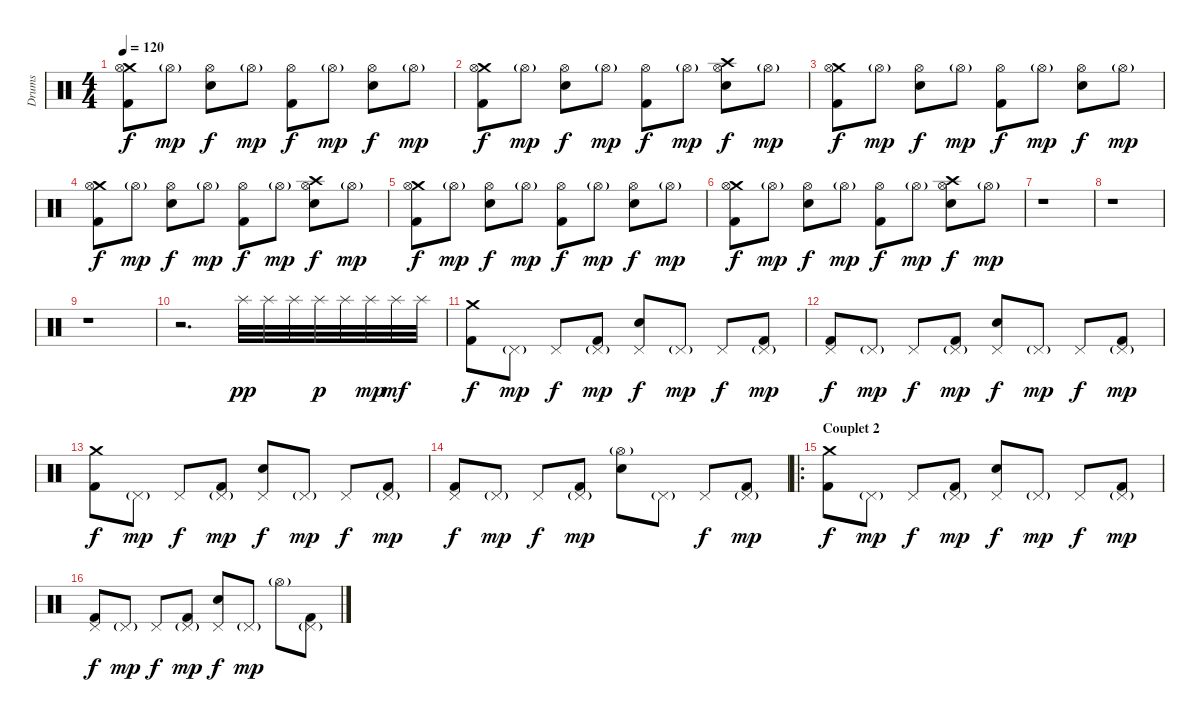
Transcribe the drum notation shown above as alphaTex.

\track ("Drums" "Drums") {instrument percussion}
\staff {score}
\articulation defaults
\ts (4 4)
\tempo 120
\clef neutral
\ks c
("Crash medium (hit)" "Hi-Hat (open)" "Kick (hit) 2").8{dy f} "Hi-Hat (open)"{g}.8{dy mp} ("Hi-Hat (open)" "Electric Snare (hit)").8{dy f} "Hi-Hat (open)"{g}.8{dy mp} ("Hi-Hat (open)" "Kick (hit) 2").8{dy f} "Hi-Hat (open)"{g}.8{dy mp} ("Hi-Hat (open)" "Electric Snare (hit)").8{dy f} "Hi-Hat (open)"{g}.8{dy mp} |
("Crash medium (hit)" "Hi-Hat (open)" "Kick (hit) 2").8{dy f} "Hi-Hat (open)"{g}.8{dy mp} ("Hi-Hat (open)" "Electric Snare (hit)").8{dy f} "Hi-Hat (open)"{g}.8{dy mp} ("Hi-Hat (open)" "Kick (hit) 2").8{dy f} "Hi-Hat (open)"{g}.8{dy mp} ("Crash high (hit)" "Hi-Hat (open)" "Electric Snare (hit)").8{dy f} "Hi-Hat (open)"{g}.8{dy mp} |
("Crash medium (hit)" "Hi-Hat (open)" "Kick (hit) 2").8{dy f} "Hi-Hat (open)"{g}.8{dy mp} ("Hi-Hat (open)" "Electric Snare (hit)").8{dy f} "Hi-Hat (open)"{g}.8{dy mp} ("Hi-Hat (open)" "Kick (hit) 2").8{dy f} "Hi-Hat (open)"{g}.8{dy mp} ("Hi-Hat (open)" "Electric Snare (hit)").8{dy f} "Hi-Hat (open)"{g}.8{dy mp} |
("Crash medium (hit)" "Hi-Hat (open)" "Kick (hit) 2").8{dy f} "Hi-Hat (open)"{g}.8{dy mp} ("Hi-Hat (open)" "Electric Snare (hit)").8{dy f} "Hi-Hat (open)"{g}.8{dy mp} ("Hi-Hat (open)" "Kick (hit) 2").8{dy f} "Hi-Hat (open)"{g}.8{dy mp} ("Crash high (hit)" "Hi-Hat (open)" "Electric Snare (hit)").8{dy f} "Hi-Hat (open)"{g}.8{dy mp} |
("Crash medium (hit)" "Hi-Hat (open)" "Kick (hit) 2").8{dy f} "Hi-Hat (open)"{g}.8{dy mp} ("Hi-Hat (open)" "Electric Snare (hit)").8{dy f} "Hi-Hat (open)"{g}.8{dy mp} ("Hi-Hat (open)" "Kick (hit) 2").8{dy f} "Hi-Hat (open)"{g}.8{dy mp} ("Hi-Hat (open)" "Electric Snare (hit)").8{dy f} "Hi-Hat (open)"{g}.8{dy mp} |
("Crash medium (hit)" "Hi-Hat (open)" "Kick (hit) 2").8{dy f} "Hi-Hat (open)"{g}.8{dy mp} ("Hi-Hat (open)" "Electric Snare (hit)").8{dy f} "Hi-Hat (open)"{g}.8{dy mp} ("Hi-Hat (open)" "Kick (hit) 2").8{dy f} "Hi-Hat (open)"{g}.8{dy mp} ("Crash high (hit)" "Hi-Hat (open)" "Electric Snare (hit)").8{dy f} "Hi-Hat (open)"{g}.8{dy mp} |
r.1 |
r.1 |
r.1 |
r.2{d} "Splash (hit)".32{dy pp} "Splash (hit)".32 "Splash (hit)".32 "Splash (hit)".32{dy p} "Splash (hit)".32 "Splash (hit)".32{dy mp} "Splash (hit)".32{dy mf} "Splash (hit)".32 |
("Crash medium (hit)" "Kick (hit) 2").8{dy f} "Pedal Hi-Hat (hit)"{g}.8{dy mp} "Pedal Hi-Hat (hit)".8{dy f} ("Pedal Hi-Hat (hit)"{g} "Kick (hit) 2").8{dy mp} ("Pedal Hi-Hat (hit)" "Electric Snare (hit)").8{dy f} "Pedal Hi-Hat (hit)"{g}.8{dy mp} "Pedal Hi-Hat (hit)".8{dy f} ("Pedal Hi-Hat (hit)"{g} "Kick (hit) 2").8{dy mp} |
("Pedal Hi-Hat (hit)" "Kick (hit) 2").8{dy f} "Pedal Hi-Hat (hit)"{g}.8{dy mp} "Pedal Hi-Hat (hit)".8{dy f} ("Pedal Hi-Hat (hit)"{g} "Kick (hit) 2").8{dy mp} ("Pedal Hi-Hat (hit)" "Electric Snare (hit)").8{dy f} "Pedal Hi-Hat (hit)"{g}.8{dy mp} "Pedal Hi-Hat (hit)".8{dy f} ("Pedal Hi-Hat (hit)"{g} "Kick (hit) 2").8{dy mp} |
("Crash medium (hit)" "Kick (hit) 2").8{dy f} "Pedal Hi-Hat (hit)"{g}.8{dy mp} "Pedal Hi-Hat (hit)".8{dy f} ("Pedal Hi-Hat (hit)"{g} "Kick (hit) 2").8{dy mp} ("Pedal Hi-Hat (hit)" "Electric Snare (hit)").8{dy f} "Pedal Hi-Hat (hit)"{g}.8{dy mp} "Pedal Hi-Hat (hit)".8{dy f} ("Pedal Hi-Hat (hit)"{g} "Kick (hit) 2").8{dy mp} |
("Pedal Hi-Hat (hit)" "Kick (hit) 2").8{dy f} "Pedal Hi-Hat (hit)"{g}.8{dy mp} "Pedal Hi-Hat (hit)".8{dy f} ("Pedal Hi-Hat (hit)"{g} "Kick (hit) 2").8{dy mp} ("Hi-Hat (open)"{g} "Electric Snare (hit)").8 "Pedal Hi-Hat (hit)"{g}.8 "Pedal Hi-Hat (hit)".8{dy f} ("Pedal Hi-Hat (hit)"{g} "Kick (hit) 2").8{dy mp} |
\ro
\section ("" "Couplet 2")
("Crash medium (hit)" "Kick (hit) 2").8{dy f} "Pedal Hi-Hat (hit)"{g}.8{dy mp} "Pedal Hi-Hat (hit)".8{dy f} ("Pedal Hi-Hat (hit)"{g} "Kick (hit) 2").8{dy mp} ("Pedal Hi-Hat (hit)" "Electric Snare (hit)").8{dy f} "Pedal Hi-Hat (hit)"{g}.8{dy mp} "Pedal Hi-Hat (hit)".8{dy f} ("Pedal Hi-Hat (hit)"{g} "Kick (hit) 2").8{dy mp} |
("Pedal Hi-Hat (hit)" "Kick (hit) 2").8{dy f} "Pedal Hi-Hat (hit)"{g}.8{dy mp} "Pedal Hi-Hat (hit)".8{dy f} ("Pedal Hi-Hat (hit)"{g} "Kick (hit) 2").8{dy mp} ("Pedal Hi-Hat (hit)" "Electric Snare (hit)").8{dy f} "Pedal Hi-Hat (hit)"{g}.8{dy mp} "Hi-Hat (open)"{g}.8 ("Pedal Hi-Hat (hit)"{g} "Kick (hit) 2").8
